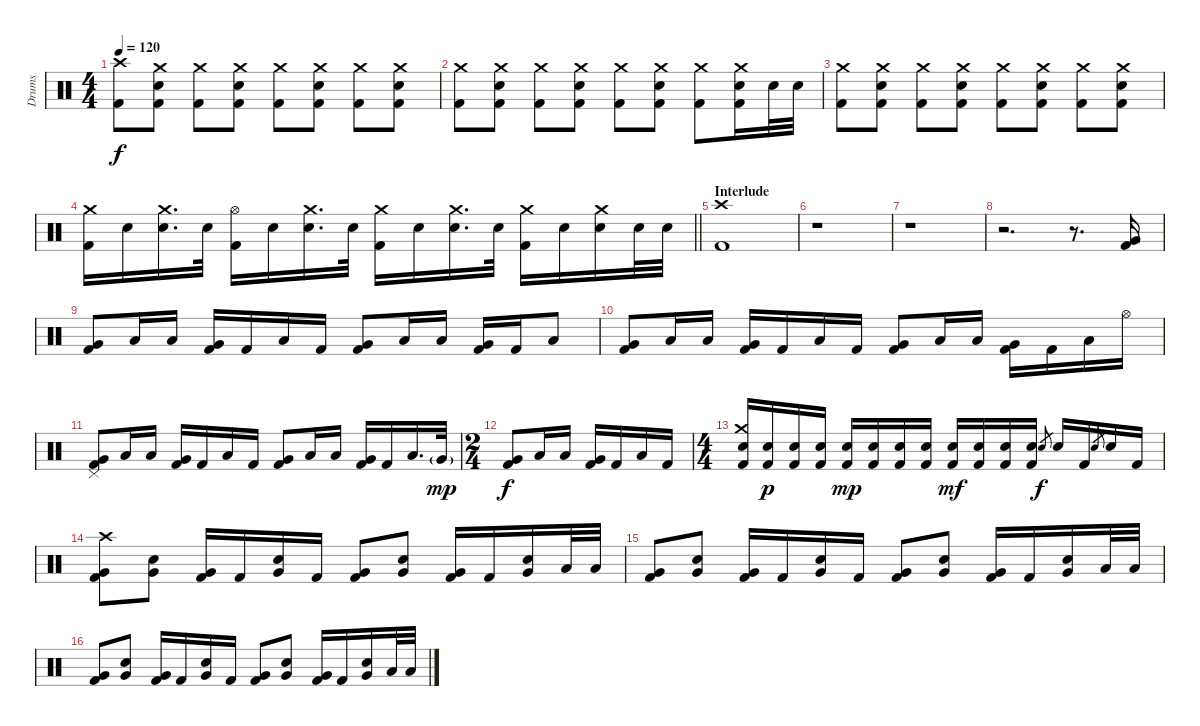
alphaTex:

\track ("Drums" "Drums") {instrument percussion}
\staff {score}
\articulation defaults
\ts (4 4)
\tempo 120
\clef neutral
\ks c
("Crash high (hit)" "Kick (hit) 2").8{dy f} ("Crash medium (hit)" "Snare (hit) 2" "Kick (hit) 2").8 ("Crash medium (hit)" "Kick (hit) 2").8 ("Crash medium (hit)" "Snare (hit) 2" "Kick (hit) 2").8 ("Crash medium (hit)" "Kick (hit) 2").8 ("Crash medium (hit)" "Snare (hit) 2" "Kick (hit) 2").8 ("Crash medium (hit)" "Kick (hit) 2").8 ("Crash medium (hit)" "Snare (hit) 2" "Kick (hit) 2").8 |
("Crash medium (hit)" "Kick (hit) 2").8 ("Crash medium (hit)" "Snare (hit) 2" "Kick (hit) 2").8 ("Crash medium (hit)" "Kick (hit) 2").8 ("Crash medium (hit)" "Snare (hit) 2" "Kick (hit) 2").8 ("Crash medium (hit)" "Kick (hit) 2").8 ("Crash medium (hit)" "Snare (hit) 2" "Kick (hit) 2").8 ("Crash medium (hit)" "Kick (hit) 2").8 ("Crash medium (hit)" "Snare (hit) 2" "Kick (hit) 2").16 "Snare (hit) 2".32 "Snare (hit) 2".32 |
("Crash medium (hit)" "Kick (hit) 2").8 ("Crash medium (hit)" "Snare (hit) 2" "Kick (hit) 2").8 ("Crash medium (hit)" "Kick (hit) 2").8 ("Crash medium (hit)" "Snare (hit) 2" "Kick (hit) 2").8 ("Crash medium (hit)" "Kick (hit) 2").8 ("Crash medium (hit)" "Snare (hit) 2" "Kick (hit) 2").8 ("Crash medium (hit)" "Kick (hit) 2").8 ("Crash medium (hit)" "Snare (hit) 2" "Kick (hit) 2").8 |
\barLineRight lightlight
("Crash medium (hit)" "Kick (hit) 2").16 "Snare (hit) 2".16 ("Crash medium (hit)" "Snare (hit) 2").16{d} "Snare (hit) 2".32 ("Hi-Hat (open)" "Kick (hit) 2").16 "Snare (hit) 2".16 ("Crash medium (hit)" "Snare (hit) 2").16{d} "Snare (hit) 2".32 ("Crash medium (hit)" "Kick (hit) 2").16 "Snare (hit) 2".16 ("Crash medium (hit)" "Snare (hit) 2").16{d} "Snare (hit) 2".32 ("Crash medium (hit)" "Kick (hit) 2").16 "Snare (hit) 2".16 ("Crash medium (hit)" "Snare (hit) 2").16 "Snare (hit) 2".32 "Snare (hit) 2".32 |
\section ("" "Interlude")
("Crash high (hit)" "Kick (hit) 2").1 |
r.1 |
r.1 |
r.2{d} r.8{d} ("Very Low Tom (hit)" "Kick (hit) 2").16 |
("Very Low Tom (hit)" "Kick (hit) 2").8 "Low Tom (hit)".16 "Low Tom (hit)".16 ("Very Low Tom (hit)" "Kick (hit) 2").16 "Kick (hit) 2".16 "Low Tom (hit)".16 "Kick (hit) 2".16 ("Very Low Tom (hit)" "Kick (hit) 2").8 "Low Tom (hit)".16 "Low Tom (hit)".16 ("Very Low Tom (hit)" "Kick (hit) 2").16 "Kick (hit) 2".16 "Low Tom (hit)".8 |
("Very Low Tom (hit)" "Kick (hit) 2").8 "Low Tom (hit)".16 "Low Tom (hit)".16 ("Very Low Tom (hit)" "Kick (hit) 2").16 "Kick (hit) 2".16 "Low Tom (hit)".16 "Kick (hit) 2".16 ("Very Low Tom (hit)" "Kick (hit) 2").8 "Low Tom (hit)".16 "Low Tom (hit)".16 ("Very Low Tom (hit)" "Kick (hit) 2").16 "Kick (hit) 2".16 "Low Tom (hit)".16 "Hi-Hat (open)".16 |
("Pedal Hi-Hat (hit)" "Very Low Tom (hit)" "Kick (hit) 2").8 "Low Tom (hit)".16 "Low Tom (hit)".16 ("Very Low Tom (hit)" "Kick (hit) 2").16 "Kick (hit) 2".16 "Low Tom (hit)".16 "Kick (hit) 2".16 ("Very Low Tom (hit)" "Kick (hit) 2").8 "Low Tom (hit)".16 "Low Tom (hit)".16 ("Very Low Tom (hit)" "Kick (hit) 2").16 "Kick (hit) 2".16 "Low Tom (hit)".16{d} "Very Low Tom (hit)"{g}.32{dy mp} |
\ts (2 4)
("Very Low Tom (hit)" "Kick (hit) 2").8{dy f} "Low Tom (hit)".16 "Low Tom (hit)".16 ("Very Low Tom (hit)" "Kick (hit) 2").16 "Kick (hit) 2".16 "Low Tom (hit)".16 "Kick (hit) 2".16 |
\ts (4 4)
("Crash medium (hit)" "Snare (hit) 2" "Kick (hit) 2").16{volume 16} ("Snare (hit) 2" "Kick (hit) 2").16{dy p} ("Snare (hit) 2" "Kick (hit) 2").16 ("Snare (hit) 2" "Kick (hit) 2").16 ("Snare (hit) 2" "Kick (hit) 2").16{dy mp} ("Snare (hit) 2" "Kick (hit) 2").16 ("Snare (hit) 2" "Kick (hit) 2").16 ("Snare (hit) 2" "Kick (hit) 2").16 ("Snare (hit) 2" "Kick (hit) 2").16{dy mf} ("Snare (hit) 2" "Kick (hit) 2").16 ("Snare (hit) 2" "Kick (hit) 2").16 ("Snare (hit) 2" "Kick (hit) 2").16 "Snare (hit) 2".8{gr dy f} "Snare (hit) 2".16 "Kick (hit) 2".16 "Snare (hit) 2".8{gr} "Snare (hit) 2".16 "Kick (hit) 2".16 |
("Crash high (hit)" "Very Low Tom (hit)" "Kick (hit) 2").8 ("Snare (hit) 2" "Very Low Tom (hit)").8 ("Very Low Tom (hit)" "Kick (hit) 2").16 "Kick (hit) 2".16 ("Snare (hit) 2" "Very Low Tom (hit)").16 "Kick (hit) 2".16 ("Very Low Tom (hit)" "Kick (hit) 2").8 ("Snare (hit) 2" "Very Low Tom (hit)").8 ("Very Low Tom (hit)" "Kick (hit) 2").16 "Kick (hit) 2".16 ("Snare (hit) 2" "Very Low Tom (hit)").16 "Low Tom (hit)".32 "Low Tom (hit)".32 |
("Very Low Tom (hit)" "Kick (hit) 2").8 ("Snare (hit) 2" "Very Low Tom (hit)").8 ("Very Low Tom (hit)" "Kick (hit) 2").16 "Kick (hit) 2".16 ("Snare (hit) 2" "Very Low Tom (hit)").16 "Kick (hit) 2".16 ("Very Low Tom (hit)" "Kick (hit) 2").8 ("Snare (hit) 2" "Very Low Tom (hit)").8 ("Very Low Tom (hit)" "Kick (hit) 2").16 "Kick (hit) 2".16 ("Snare (hit) 2" "Very Low Tom (hit)").16 "Low Tom (hit)".32 "Low Tom (hit)".32 |
("Very Low Tom (hit)" "Kick (hit) 2").8 ("Snare (hit) 2" "Very Low Tom (hit)").8 ("Very Low Tom (hit)" "Kick (hit) 2").16 "Kick (hit) 2".16 ("Snare (hit) 2" "Very Low Tom (hit)").16 "Kick (hit) 2".16 ("Very Low Tom (hit)" "Kick (hit) 2").8 ("Snare (hit) 2" "Very Low Tom (hit)").8 ("Very Low Tom (hit)" "Kick (hit) 2").16 "Kick (hit) 2".16 ("Snare (hit) 2" "Very Low Tom (hit)").16 "Low Tom (hit)".32 "Low Tom (hit)".32
